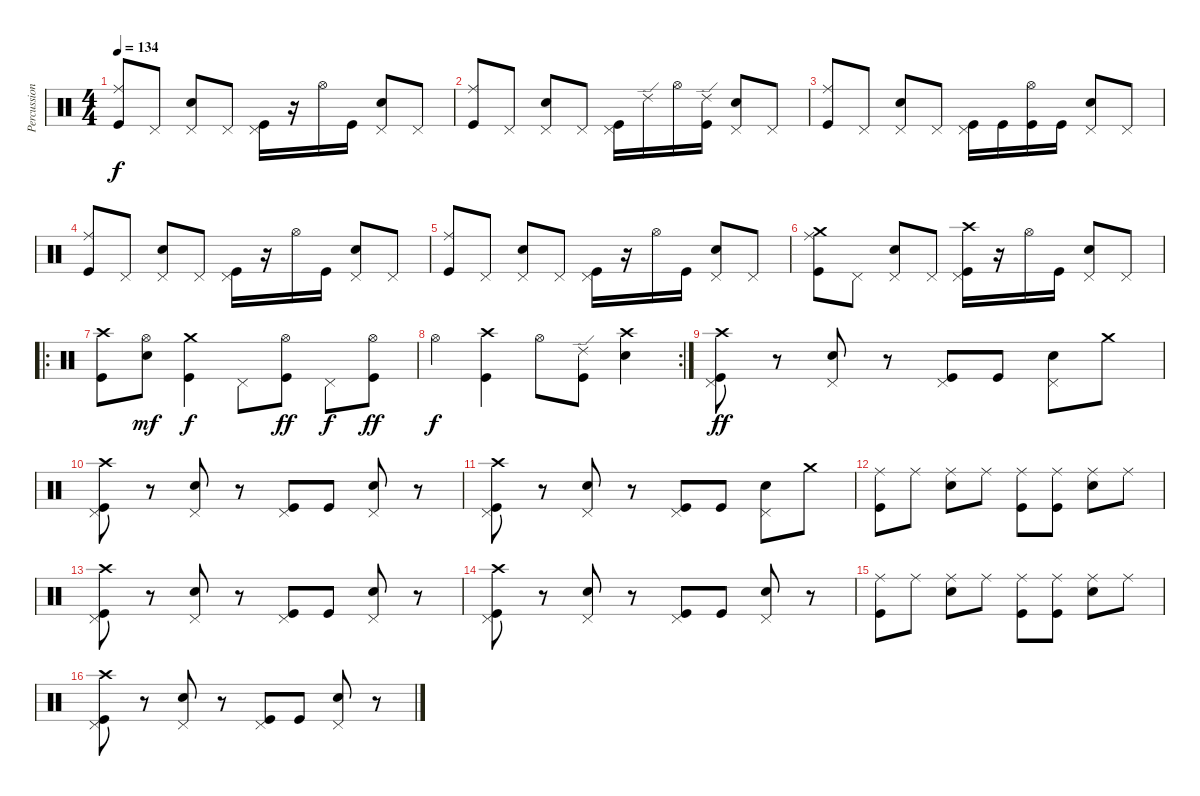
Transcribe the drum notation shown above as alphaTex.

\track ("Percussion" "Percussion") {instrument percussion}
\staff {score}
\articulation defaults
\ts (4 4)
\tempo 134
\clef neutral
\ks c
("Ride (middle)" "Kick (hit)").8{dy f} "Pedal Hi-Hat (hit)".8 ("Pedal Hi-Hat (hit)" "Electric Snare (hit)").8 "Pedal Hi-Hat (hit)".8 ("Pedal Hi-Hat (hit)" "Kick (hit)").16 r.16 "Hi-Hat (open)".16 "Kick (hit)".16 ("Pedal Hi-Hat (hit)" "Electric Snare (hit)").8 "Pedal Hi-Hat (hit)".8 |
("Ride (middle)" "Kick (hit)").8 "Pedal Hi-Hat (hit)".8 ("Pedal Hi-Hat (hit)" "Electric Snare (hit)").8 "Pedal Hi-Hat (hit)".8 ("Pedal Hi-Hat (hit)" "Kick (hit)").16 "Ride (edge) 2".16 "Hi-Hat (open)".16 ("Ride (edge) 2" "Kick (hit)").16 ("Pedal Hi-Hat (hit)" "Electric Snare (hit)").8 "Pedal Hi-Hat (hit)".8 |
("Ride (middle)" "Kick (hit)").8 "Pedal Hi-Hat (hit)".8 ("Pedal Hi-Hat (hit)" "Electric Snare (hit)").8 "Pedal Hi-Hat (hit)".8 ("Pedal Hi-Hat (hit)" "Kick (hit)").16 "Kick (hit)".16 ("Hi-Hat (open)" "Kick (hit)").16 "Kick (hit)".16 ("Pedal Hi-Hat (hit)" "Electric Snare (hit)").8 "Pedal Hi-Hat (hit)".8 |
("Ride (middle)" "Kick (hit)").8 "Pedal Hi-Hat (hit)".8 ("Pedal Hi-Hat (hit)" "Electric Snare (hit)").8 "Pedal Hi-Hat (hit)".8 ("Pedal Hi-Hat (hit)" "Kick (hit)").16 r.16 "Hi-Hat (open)".16 "Kick (hit)".16 ("Pedal Hi-Hat (hit)" "Electric Snare (hit)").8 "Pedal Hi-Hat (hit)".8 |
("Ride (middle)" "Kick (hit)").8 "Pedal Hi-Hat (hit)".8 ("Pedal Hi-Hat (hit)" "Electric Snare (hit)").8 "Pedal Hi-Hat (hit)".8 ("Pedal Hi-Hat (hit)" "Kick (hit)").16 r.16 "Hi-Hat (open)".16 "Kick (hit)".16 ("Pedal Hi-Hat (hit)" "Electric Snare (hit)").8 "Pedal Hi-Hat (hit)".8 |
("Crash medium (hit)" "Ride (middle)" "Kick (hit)").8 "Pedal Hi-Hat (hit)".8 ("Pedal Hi-Hat (hit)" "Electric Snare (hit)").8 "Pedal Hi-Hat (hit)".8 ("Crash high (hit)" "Pedal Hi-Hat (hit)" "Kick (hit)").16 r.16 "Hi-Hat (open)".16 "Kick (hit)".16 ("Pedal Hi-Hat (hit)" "Electric Snare (hit)").8 "Pedal Hi-Hat (hit)".8 |
\ro
("Crash high (hit)" "Kick (hit)").8 ("Hi-Hat (open)" "Electric Snare (hit)").8{dy mf} ("Crash medium (hit)" "Kick (hit)").4{dy f} "Pedal Hi-Hat (hit)".8 ("Hi-Hat (open)" "Kick (hit)").8{dy ff} "Pedal Hi-Hat (hit)".8{dy f} ("Hi-Hat (open)" "Kick (hit)").8{dy ff} |
\rc 2 "Hi-Hat (open)".4{dy f}
("Crash high (hit)" "Kick (hit)").4 "Hi-Hat (open)".8 ("Ride (edge) 2" "Kick (hit)").8 ("Crash high (hit)" "Electric Snare (hit)").4 |
("Crash high (hit)" "Kick (hit)" "Pedal Hi-Hat (hit)").8{dy ff} r.8 ("Electric Snare (hit)" "Pedal Hi-Hat (hit)").8 r.8 ("Kick (hit)" "Pedal Hi-Hat (hit)").8 "Kick (hit)".8 ("Electric Snare (hit)" "Pedal Hi-Hat (hit)").8 "Crash medium (hit)".8 |
("Crash high (hit)" "Kick (hit)" "Pedal Hi-Hat (hit)").8 r.8 ("Electric Snare (hit)" "Pedal Hi-Hat (hit)").8 r.8 ("Kick (hit)" "Pedal Hi-Hat (hit)").8 "Kick (hit)".8 ("Electric Snare (hit)" "Pedal Hi-Hat (hit)").8 r.8 |
("Crash high (hit)" "Kick (hit)" "Pedal Hi-Hat (hit)").8 r.8 ("Electric Snare (hit)" "Pedal Hi-Hat (hit)").8 r.8 ("Kick (hit)" "Pedal Hi-Hat (hit)").8 "Kick (hit)".8 ("Electric Snare (hit)" "Pedal Hi-Hat (hit)").8 "Crash medium (hit)".8 |
("Kick (hit)" "Ride (middle)").8 "Ride (middle)".8 ("Electric Snare (hit)" "Ride (middle)").8 "Ride (middle)".8 ("Kick (hit)" "Ride (middle)").8 ("Kick (hit)" "Ride (middle)").8 ("Electric Snare (hit)" "Ride (middle)").8 "Ride (middle)".8 |
("Crash high (hit)" "Kick (hit)" "Pedal Hi-Hat (hit)").8 r.8 ("Electric Snare (hit)" "Pedal Hi-Hat (hit)").8 r.8 ("Kick (hit)" "Pedal Hi-Hat (hit)").8 "Kick (hit)".8 ("Electric Snare (hit)" "Pedal Hi-Hat (hit)").8 r.8 |
("Crash high (hit)" "Kick (hit)" "Pedal Hi-Hat (hit)").8 r.8 ("Electric Snare (hit)" "Pedal Hi-Hat (hit)").8 r.8 ("Kick (hit)" "Pedal Hi-Hat (hit)").8 "Kick (hit)".8 ("Electric Snare (hit)" "Pedal Hi-Hat (hit)").8 r.8 |
("Kick (hit)" "Ride (middle)").8 "Ride (middle)".8 ("Electric Snare (hit)" "Ride (middle)").8 "Ride (middle)".8 ("Kick (hit)" "Ride (middle)").8 ("Kick (hit)" "Ride (middle)").8 ("Electric Snare (hit)" "Ride (middle)").8 "Ride (middle)".8 |
("Crash high (hit)" "Kick (hit)" "Pedal Hi-Hat (hit)").8 r.8 ("Electric Snare (hit)" "Pedal Hi-Hat (hit)").8 r.8 ("Kick (hit)" "Pedal Hi-Hat (hit)").8 "Kick (hit)".8 ("Electric Snare (hit)" "Pedal Hi-Hat (hit)").8 r.8
